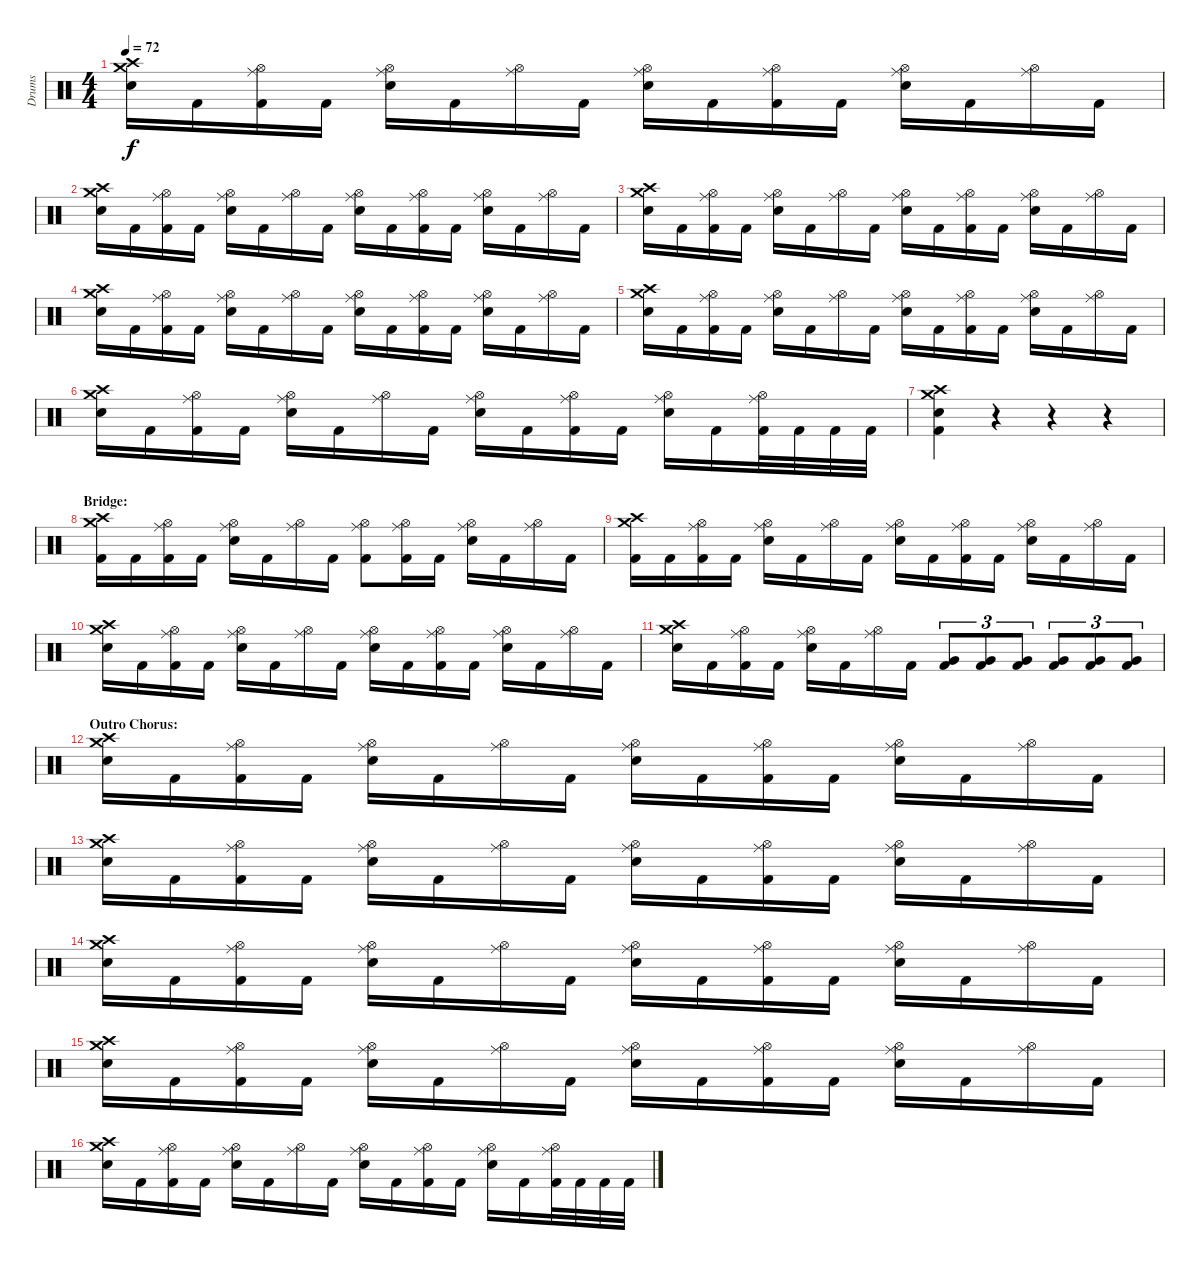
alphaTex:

\track ("Drums" "Drums") {instrument percussion}
\staff {score}
\articulation defaults
\ts (4 4)
\tempo 72
\clef neutral
\ks c
("Crash medium (hit)" "Crash high (hit)" "Electric Snare (hit)").16{dy f} "Kick (hit) 2".16 ("Ride (middle)" "Hi-Hat (open)" "Kick (hit) 2").16 "Kick (hit) 2".16 ("Ride (middle)" "Hi-Hat (open)" "Electric Snare (hit)").16 "Kick (hit) 2".16 ("Ride (middle)" "Hi-Hat (open)").16 "Kick (hit) 2".16 ("Ride (middle)" "Hi-Hat (open)" "Electric Snare (hit)").16 "Kick (hit) 2".16 ("Ride (middle)" "Hi-Hat (open)" "Kick (hit) 2").16 "Kick (hit) 2".16 ("Ride (middle)" "Hi-Hat (open)" "Electric Snare (hit)").16 "Kick (hit) 2".16 ("Ride (middle)" "Hi-Hat (open)").16 "Kick (hit) 2".16 |
("Crash medium (hit)" "Crash high (hit)" "Electric Snare (hit)").16 "Kick (hit) 2".16 ("Ride (middle)" "Hi-Hat (open)" "Kick (hit) 2").16 "Kick (hit) 2".16 ("Ride (middle)" "Hi-Hat (open)" "Electric Snare (hit)").16 "Kick (hit) 2".16 ("Ride (middle)" "Hi-Hat (open)").16 "Kick (hit) 2".16 ("Ride (middle)" "Hi-Hat (open)" "Electric Snare (hit)").16 "Kick (hit) 2".16 ("Ride (middle)" "Hi-Hat (open)" "Kick (hit) 2").16 "Kick (hit) 2".16 ("Ride (middle)" "Hi-Hat (open)" "Electric Snare (hit)").16 "Kick (hit) 2".16 ("Ride (middle)" "Hi-Hat (open)").16 "Kick (hit) 2".16 |
("Crash medium (hit)" "Crash high (hit)" "Electric Snare (hit)").16 "Kick (hit) 2".16 ("Ride (middle)" "Hi-Hat (open)" "Kick (hit) 2").16 "Kick (hit) 2".16 ("Ride (middle)" "Hi-Hat (open)" "Electric Snare (hit)").16 "Kick (hit) 2".16 ("Ride (middle)" "Hi-Hat (open)").16 "Kick (hit) 2".16 ("Ride (middle)" "Hi-Hat (open)" "Electric Snare (hit)").16 "Kick (hit) 2".16 ("Ride (middle)" "Hi-Hat (open)" "Kick (hit) 2").16 "Kick (hit) 2".16 ("Ride (middle)" "Hi-Hat (open)" "Electric Snare (hit)").16 "Kick (hit) 2".16 ("Ride (middle)" "Hi-Hat (open)").16 "Kick (hit) 2".16 |
("Crash medium (hit)" "Crash high (hit)" "Electric Snare (hit)").16 "Kick (hit) 2".16 ("Ride (middle)" "Hi-Hat (open)" "Kick (hit) 2").16 "Kick (hit) 2".16 ("Ride (middle)" "Hi-Hat (open)" "Electric Snare (hit)").16 "Kick (hit) 2".16 ("Ride (middle)" "Hi-Hat (open)").16 "Kick (hit) 2".16 ("Ride (middle)" "Hi-Hat (open)" "Electric Snare (hit)").16 "Kick (hit) 2".16 ("Ride (middle)" "Hi-Hat (open)" "Kick (hit) 2").16 "Kick (hit) 2".16 ("Ride (middle)" "Hi-Hat (open)" "Electric Snare (hit)").16 "Kick (hit) 2".16 ("Ride (middle)" "Hi-Hat (open)").16 "Kick (hit) 2".16 |
("Crash medium (hit)" "Crash high (hit)" "Electric Snare (hit)").16 "Kick (hit) 2".16 ("Ride (middle)" "Hi-Hat (open)" "Kick (hit) 2").16 "Kick (hit) 2".16 ("Ride (middle)" "Hi-Hat (open)" "Electric Snare (hit)").16 "Kick (hit) 2".16 ("Ride (middle)" "Hi-Hat (open)").16 "Kick (hit) 2".16 ("Ride (middle)" "Hi-Hat (open)" "Electric Snare (hit)").16 "Kick (hit) 2".16 ("Ride (middle)" "Hi-Hat (open)" "Kick (hit) 2").16 "Kick (hit) 2".16 ("Ride (middle)" "Hi-Hat (open)" "Electric Snare (hit)").16 "Kick (hit) 2".16 ("Ride (middle)" "Hi-Hat (open)").16 "Kick (hit) 2".16 |
("Crash medium (hit)" "Crash high (hit)" "Electric Snare (hit)").16 "Kick (hit) 2".16 ("Ride (middle)" "Hi-Hat (open)" "Kick (hit) 2").16 "Kick (hit) 2".16 ("Ride (middle)" "Hi-Hat (open)" "Electric Snare (hit)").16 "Kick (hit) 2".16 ("Ride (middle)" "Hi-Hat (open)").16 "Kick (hit) 2".16 ("Ride (middle)" "Hi-Hat (open)" "Electric Snare (hit)").16 "Kick (hit) 2".16 ("Ride (middle)" "Hi-Hat (open)" "Kick (hit) 2").16 "Kick (hit) 2".16 ("Ride (middle)" "Hi-Hat (open)" "Electric Snare (hit)").16 "Kick (hit) 2".16 ("Ride (middle)" "Hi-Hat (open)" "Kick (hit) 2").32 "Kick (hit) 2".32 "Kick (hit) 2".32 "Kick (hit) 2".32 |
("Crash medium (hit)" "Crash high (hit)" "Electric Snare (hit)" "Kick (hit) 2").4 r.4 r.4 r.4 |
\section ("" "Bridge:")
("Crash medium (hit)" "Crash high (hit)" "Kick (hit) 2").16 "Kick (hit) 2".16 ("Ride (middle)" "Hi-Hat (open)" "Kick (hit) 2").16 "Kick (hit) 2".16 ("Ride (middle)" "Hi-Hat (open)" "Electric Snare (hit)").16 "Kick (hit) 2".16 ("Ride (middle)" "Hi-Hat (open)").16 "Kick (hit) 2".16 ("Ride (middle)" "Hi-Hat (open)" "Kick (hit) 2").8 ("Ride (middle)" "Hi-Hat (open)" "Kick (hit) 2").16 "Kick (hit) 2".16 ("Ride (middle)" "Hi-Hat (open)" "Electric Snare (hit)").16 "Kick (hit) 2".16 ("Ride (middle)" "Hi-Hat (open)").16 "Kick (hit) 2".16 |
("Crash medium (hit)" "Crash high (hit)" "Kick (hit) 2").16 "Kick (hit) 2".16 ("Ride (middle)" "Hi-Hat (open)" "Kick (hit) 2").16 "Kick (hit) 2".16 ("Ride (middle)" "Hi-Hat (open)" "Electric Snare (hit)").16 "Kick (hit) 2".16 ("Ride (middle)" "Hi-Hat (open)").16 "Kick (hit) 2".16 ("Ride (middle)" "Hi-Hat (open)" "Electric Snare (hit)").16 "Kick (hit) 2".16 ("Ride (middle)" "Hi-Hat (open)" "Kick (hit) 2").16 "Kick (hit) 2".16 ("Ride (middle)" "Hi-Hat (open)" "Electric Snare (hit)").16 "Kick (hit) 2".16 ("Ride (middle)" "Hi-Hat (open)").16 "Kick (hit) 2".16 |
("Crash medium (hit)" "Crash high (hit)" "Electric Snare (hit)").16 "Kick (hit) 2".16 ("Ride (middle)" "Hi-Hat (open)" "Kick (hit) 2").16 "Kick (hit) 2".16 ("Ride (middle)" "Hi-Hat (open)" "Electric Snare (hit)").16 "Kick (hit) 2".16 ("Ride (middle)" "Hi-Hat (open)").16 "Kick (hit) 2".16 ("Ride (middle)" "Hi-Hat (open)" "Electric Snare (hit)").16 "Kick (hit) 2".16 ("Ride (middle)" "Hi-Hat (open)" "Kick (hit) 2").16 "Kick (hit) 2".16 ("Ride (middle)" "Hi-Hat (open)" "Electric Snare (hit)").16 "Kick (hit) 2".16 ("Ride (middle)" "Hi-Hat (open)").16 "Kick (hit) 2".16 |
("Crash medium (hit)" "Crash high (hit)" "Electric Snare (hit)").16 "Kick (hit) 2".16 ("Ride (middle)" "Hi-Hat (open)" "Kick (hit) 2").16 "Kick (hit) 2".16 ("Ride (middle)" "Hi-Hat (open)" "Electric Snare (hit)").16 "Kick (hit) 2".16 ("Ride (middle)" "Hi-Hat (open)").16 "Kick (hit) 2".16 ("Very Low Tom (hit)" "Kick (hit) 2").8{tu (3 2)} ("Very Low Tom (hit)" "Kick (hit) 2").8{tu (3 2)} ("Very Low Tom (hit)" "Kick (hit) 2").8{tu (3 2)} ("Very Low Tom (hit)" "Kick (hit) 2").8{tu (3 2)} ("Very Low Tom (hit)" "Kick (hit) 2").8{tu (3 2)} ("Very Low Tom (hit)" "Kick (hit) 2").8{tu (3 2)} |
\section ("" "Outro Chorus:")
("Crash medium (hit)" "Crash high (hit)" "Electric Snare (hit)").16 "Kick (hit) 2".16 ("Ride (middle)" "Hi-Hat (open)" "Kick (hit) 2").16 "Kick (hit) 2".16 ("Ride (middle)" "Hi-Hat (open)" "Electric Snare (hit)").16 "Kick (hit) 2".16 ("Ride (middle)" "Hi-Hat (open)").16 "Kick (hit) 2".16 ("Ride (middle)" "Hi-Hat (open)" "Electric Snare (hit)").16 "Kick (hit) 2".16 ("Ride (middle)" "Hi-Hat (open)" "Kick (hit) 2").16 "Kick (hit) 2".16 ("Ride (middle)" "Hi-Hat (open)" "Electric Snare (hit)").16 "Kick (hit) 2".16 ("Ride (middle)" "Hi-Hat (open)").16 "Kick (hit) 2".16 |
("Crash medium (hit)" "Crash high (hit)" "Electric Snare (hit)").16 "Kick (hit) 2".16 ("Ride (middle)" "Hi-Hat (open)" "Kick (hit) 2").16 "Kick (hit) 2".16 ("Ride (middle)" "Hi-Hat (open)" "Electric Snare (hit)").16 "Kick (hit) 2".16 ("Ride (middle)" "Hi-Hat (open)").16 "Kick (hit) 2".16 ("Ride (middle)" "Hi-Hat (open)" "Electric Snare (hit)").16 "Kick (hit) 2".16 ("Ride (middle)" "Hi-Hat (open)" "Kick (hit) 2").16 "Kick (hit) 2".16 ("Ride (middle)" "Hi-Hat (open)" "Electric Snare (hit)").16 "Kick (hit) 2".16 ("Ride (middle)" "Hi-Hat (open)").16 "Kick (hit) 2".16 |
("Crash medium (hit)" "Crash high (hit)" "Electric Snare (hit)").16 "Kick (hit) 2".16 ("Ride (middle)" "Hi-Hat (open)" "Kick (hit) 2").16 "Kick (hit) 2".16 ("Ride (middle)" "Hi-Hat (open)" "Electric Snare (hit)").16 "Kick (hit) 2".16 ("Ride (middle)" "Hi-Hat (open)").16 "Kick (hit) 2".16 ("Ride (middle)" "Hi-Hat (open)" "Electric Snare (hit)").16 "Kick (hit) 2".16 ("Ride (middle)" "Hi-Hat (open)" "Kick (hit) 2").16 "Kick (hit) 2".16 ("Ride (middle)" "Hi-Hat (open)" "Electric Snare (hit)").16 "Kick (hit) 2".16 ("Ride (middle)" "Hi-Hat (open)").16 "Kick (hit) 2".16 |
("Crash medium (hit)" "Crash high (hit)" "Electric Snare (hit)").16 "Kick (hit) 2".16 ("Ride (middle)" "Hi-Hat (open)" "Kick (hit) 2").16 "Kick (hit) 2".16 ("Ride (middle)" "Hi-Hat (open)" "Electric Snare (hit)").16 "Kick (hit) 2".16 ("Ride (middle)" "Hi-Hat (open)").16 "Kick (hit) 2".16 ("Ride (middle)" "Hi-Hat (open)" "Electric Snare (hit)").16 "Kick (hit) 2".16 ("Ride (middle)" "Hi-Hat (open)" "Kick (hit) 2").16 "Kick (hit) 2".16 ("Ride (middle)" "Hi-Hat (open)" "Electric Snare (hit)").16 "Kick (hit) 2".16 ("Ride (middle)" "Hi-Hat (open)").16 "Kick (hit) 2".16 |
("Crash medium (hit)" "Crash high (hit)" "Electric Snare (hit)").16 "Kick (hit) 2".16 ("Ride (middle)" "Hi-Hat (open)" "Kick (hit) 2").16 "Kick (hit) 2".16 ("Ride (middle)" "Hi-Hat (open)" "Electric Snare (hit)").16 "Kick (hit) 2".16 ("Ride (middle)" "Hi-Hat (open)").16 "Kick (hit) 2".16 ("Ride (middle)" "Hi-Hat (open)" "Electric Snare (hit)").16 "Kick (hit) 2".16 ("Ride (middle)" "Hi-Hat (open)" "Kick (hit) 2").16 "Kick (hit) 2".16 ("Ride (middle)" "Hi-Hat (open)" "Electric Snare (hit)").16 "Kick (hit) 2".16 ("Ride (middle)" "Hi-Hat (open)" "Kick (hit) 2").32 "Kick (hit) 2".32 "Kick (hit) 2".32 "Kick (hit) 2".32
